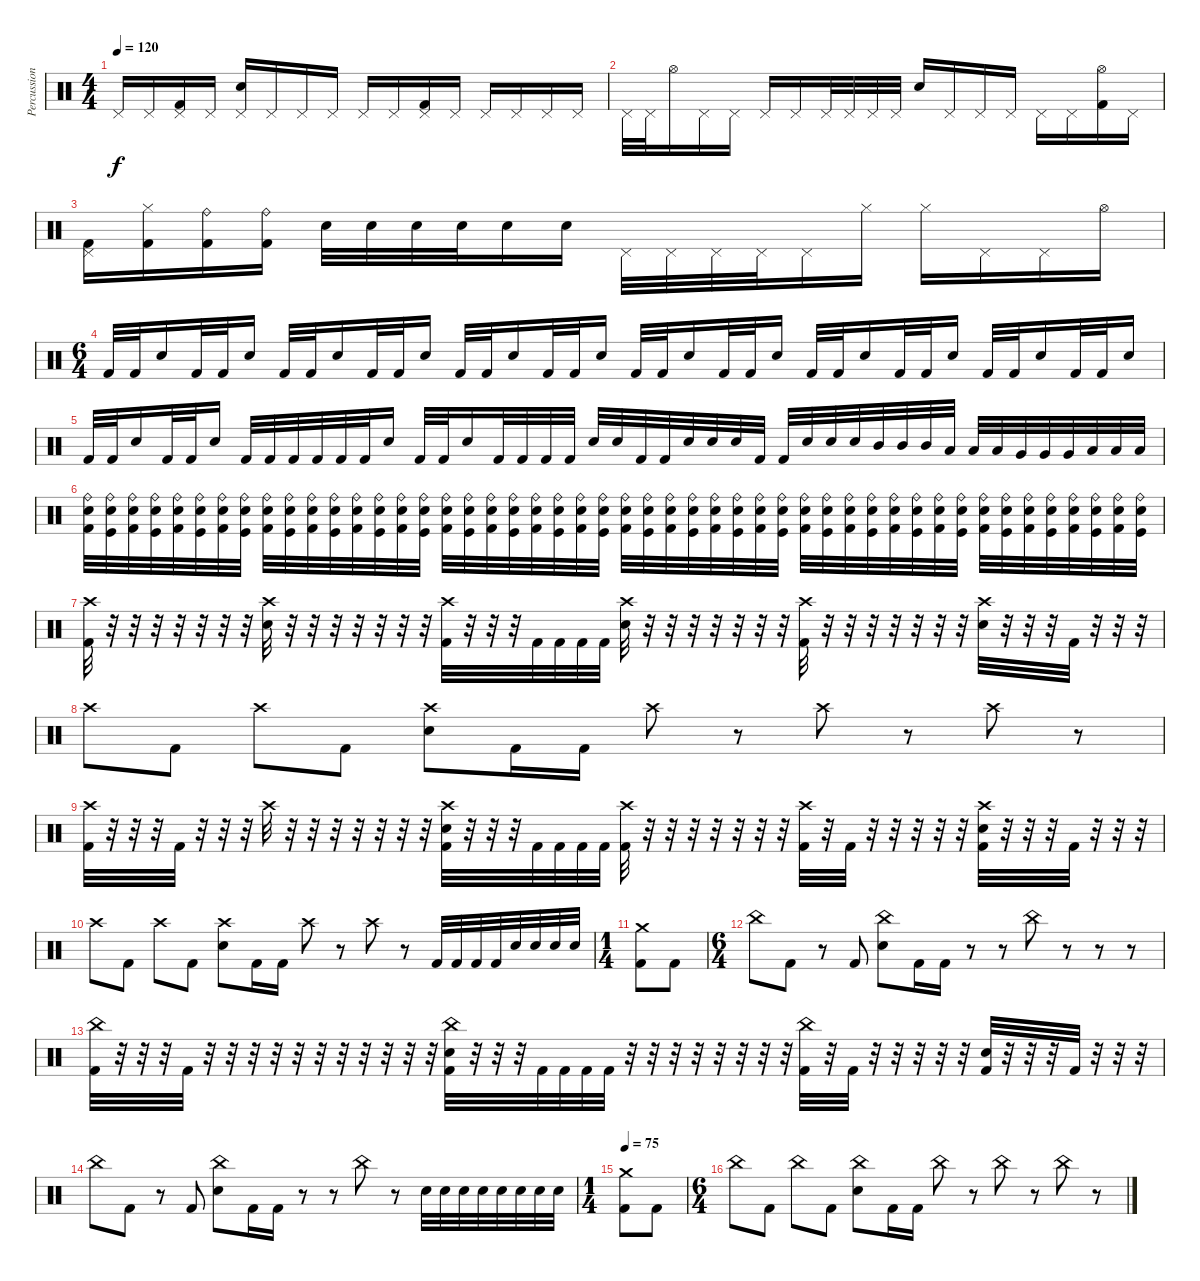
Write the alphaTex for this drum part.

\track ("Percussion" "Percussion") {instrument percussion}
\staff {score}
\articulation defaults
\ts (4 4)
\tempo 120
\clef neutral
\ks c "Pedal Hi-Hat (hit)".16{dy f} "Pedal Hi-Hat (hit)".16
("Pedal Hi-Hat (hit)" "Kick (hit) 2").16 "Pedal Hi-Hat (hit)".16 ("Pedal Hi-Hat (hit)" "Electric Snare (hit)").16 "Pedal Hi-Hat (hit)".16 "Pedal Hi-Hat (hit)".16 "Pedal Hi-Hat (hit)".16 "Pedal Hi-Hat (hit)".16 "Pedal Hi-Hat (hit)".16 ("Pedal Hi-Hat (hit)" "Kick (hit) 2").16 "Pedal Hi-Hat (hit)".16 "Pedal Hi-Hat (hit)".16 "Pedal Hi-Hat (hit)".16 "Pedal Hi-Hat (hit)".16 "Pedal Hi-Hat (hit)".16 |
"Pedal Hi-Hat (hit)".32 "Pedal Hi-Hat (hit)".32 "Hi-Hat (open)".16{beam merge} "Pedal Hi-Hat (hit)".16 "Pedal Hi-Hat (hit)".16 "Pedal Hi-Hat (hit)".16 "Pedal Hi-Hat (hit)".16 "Pedal Hi-Hat (hit)".32 "Pedal Hi-Hat (hit)".32 "Pedal Hi-Hat (hit)".32 "Pedal Hi-Hat (hit)".32 "Electric Snare (hit)".16 "Pedal Hi-Hat (hit)".16 "Pedal Hi-Hat (hit)".16 "Pedal Hi-Hat (hit)".16 "Pedal Hi-Hat (hit)".16 "Pedal Hi-Hat (hit)".16 ("Hi-Hat (open)" "Kick (hit) 2").16 "Pedal Hi-Hat (hit)".16 |
("Pedal Hi-Hat (hit)" "Kick (hit) 2").16 ("Hi-Hat (closed)" "Kick (hit) 2").16 ("Ride (bell)" "Kick (hit) 2").16 ("Ride (bell)" "Kick (hit) 2").16 "Electric Snare (hit)".32 "Electric Snare (hit)".32 "Electric Snare (hit)".32 "Electric Snare (hit)".32 "Electric Snare (hit)".16 "Electric Snare (hit)".16 "Pedal Hi-Hat (hit)".32 "Pedal Hi-Hat (hit)".32 "Pedal Hi-Hat (hit)".32 "Pedal Hi-Hat (hit)".32 "Pedal Hi-Hat (hit)".16 "Hi-Hat (closed)".16 "Hi-Hat (closed)".16 "Pedal Hi-Hat (hit)".16 "Pedal Hi-Hat (hit)".16 "Hi-Hat (open)".16 |
\ts (6 4)
"Kick (hit) 2".32 "Kick (hit) 2".32 "Electric Snare (hit)".16 "Kick (hit) 2".32 "Kick (hit) 2".32 "Electric Snare (hit)".16 "Kick (hit) 2".32 "Kick (hit) 2".32 "Electric Snare (hit)".16 "Kick (hit) 2".32 "Kick (hit) 2".32 "Electric Snare (hit)".16 "Kick (hit) 2".32 "Kick (hit) 2".32 "Electric Snare (hit)".16 "Kick (hit) 2".32 "Kick (hit) 2".32 "Electric Snare (hit)".16 "Kick (hit) 2".32 "Kick (hit) 2".32 "Electric Snare (hit)".16 "Kick (hit) 2".32 "Kick (hit) 2".32 "Electric Snare (hit)".16 "Kick (hit) 2".32 "Kick (hit) 2".32 "Electric Snare (hit)".16 "Kick (hit) 2".32 "Kick (hit) 2".32 "Electric Snare (hit)".16 "Kick (hit) 2".32 "Kick (hit) 2".32 "Electric Snare (hit)".16 "Kick (hit) 2".32 "Kick (hit) 2".32 "Electric Snare (hit)".16 |
"Kick (hit) 2".32 "Kick (hit) 2".32 "Electric Snare (hit)".16 "Kick (hit) 2".32 "Kick (hit) 2".32 "Electric Snare (hit)".16 "Kick (hit) 2".32 "Kick (hit) 2".32 "Kick (hit) 2".32 "Kick (hit) 2".32 "Kick (hit) 2".32 "Kick (hit) 2".32 "Electric Snare (hit)".16 "Kick (hit) 2".32 "Kick (hit) 2".32 "Electric Snare (hit)".16 "Kick (hit) 2".32 "Kick (hit) 2".32 "Kick (hit) 2".32 "Kick (hit) 2".32 "Electric Snare (hit)".32 "Electric Snare (hit)".32 "Kick (hit) 2".32 "Kick (hit) 2".32 "Electric Snare (hit)".32 "Electric Snare (hit)".32 "Electric Snare (hit)".32 "Kick (hit) 2".32 "Kick (hit) 2".32 "Electric Snare (hit)".32 "Electric Snare (hit)".32 "Electric Snare (hit)".32 "Mid Tom (hit)".32 "Mid Tom (hit)".32 "Mid Tom (hit)".32 "Low Tom (hit)".32 "Low Tom (hit)".32 "Low Tom (hit)".32 "Very Low Tom (hit)".32 "Very Low Tom (hit)".32 "Very Low Tom (hit)".32 "Low Floor Tom (hit)".32 "Low Floor Tom (hit)".32 "Low Floor Tom (hit)".32 |
("Ride (bell)" "Electric Snare (hit)" "Kick (hit) 2").32 ("Ride (bell)" "Electric Snare (hit)" "Kick (hit)").32 ("Ride (bell)" "Electric Snare (hit)" "Kick (hit) 2").32 ("Ride (bell)" "Electric Snare (hit)" "Kick (hit)").32 ("Ride (bell)" "Electric Snare (hit)" "Kick (hit) 2").32 ("Ride (bell)" "Electric Snare (hit)" "Kick (hit)").32 ("Ride (bell)" "Electric Snare (hit)" "Kick (hit) 2").32 ("Ride (bell)" "Electric Snare (hit)" "Kick (hit)").32 ("Ride (bell)" "Electric Snare (hit)" "Kick (hit) 2").32 ("Ride (bell)" "Electric Snare (hit)" "Kick (hit)").32 ("Ride (bell)" "Electric Snare (hit)" "Kick (hit) 2").32 ("Ride (bell)" "Electric Snare (hit)" "Kick (hit)").32 ("Ride (bell)" "Electric Snare (hit)" "Kick (hit) 2").32 ("Ride (bell)" "Electric Snare (hit)" "Kick (hit)").32 ("Ride (bell)" "Electric Snare (hit)" "Kick (hit) 2").32 ("Ride (bell)" "Electric Snare (hit)" "Kick (hit)").32 ("Ride (bell)" "Electric Snare (hit)" "Kick (hit) 2").32 ("Ride (bell)" "Electric Snare (hit)" "Kick (hit)").32 ("Ride (bell)" "Electric Snare (hit)" "Kick (hit) 2").32 ("Ride (bell)" "Electric Snare (hit)" "Kick (hit)").32 ("Ride (bell)" "Electric Snare (hit)" "Kick (hit) 2").32 ("Ride (bell)" "Electric Snare (hit)" "Kick (hit)").32 ("Ride (bell)" "Electric Snare (hit)" "Kick (hit) 2").32 ("Ride (bell)" "Electric Snare (hit)" "Kick (hit)").32 ("Ride (bell)" "Electric Snare (hit)" "Kick (hit) 2").32 ("Ride (bell)" "Electric Snare (hit)" "Kick (hit)").32 ("Ride (bell)" "Electric Snare (hit)" "Kick (hit) 2").32 ("Ride (bell)" "Electric Snare (hit)" "Kick (hit)").32 ("Ride (bell)" "Electric Snare (hit)" "Kick (hit) 2").32 ("Ride (bell)" "Electric Snare (hit)" "Kick (hit)").32 ("Ride (bell)" "Electric Snare (hit)" "Kick (hit) 2").32 ("Ride (bell)" "Electric Snare (hit)" "Kick (hit)").32 ("Ride (bell)" "Electric Snare (hit)" "Kick (hit) 2").32 ("Ride (bell)" "Electric Snare (hit)" "Kick (hit)").32 ("Ride (bell)" "Electric Snare (hit)" "Kick (hit) 2").32 ("Ride (bell)" "Electric Snare (hit)" "Kick (hit)").32 ("Ride (bell)" "Electric Snare (hit)" "Kick (hit) 2").32 ("Ride (bell)" "Electric Snare (hit)" "Kick (hit)").32 ("Ride (bell)" "Electric Snare (hit)" "Kick (hit) 2").32 ("Ride (bell)" "Electric Snare (hit)" "Kick (hit)").32 ("Ride (bell)" "Electric Snare (hit)" "Kick (hit) 2").32 ("Ride (bell)" "Electric Snare (hit)" "Kick (hit)").32 ("Ride (bell)" "Electric Snare (hit)" "Kick (hit) 2").32 ("Ride (bell)" "Electric Snare (hit)" "Kick (hit)").32 ("Ride (bell)" "Electric Snare (hit)" "Kick (hit) 2").32 ("Ride (bell)" "Electric Snare (hit)" "Kick (hit)").32 ("Ride (bell)" "Electric Snare (hit)" "Kick (hit) 2").32 ("Ride (bell)" "Electric Snare (hit)" "Kick (hit)").32 |
("Crash high (hit)" "Kick (hit) 2").32 r.32 r.32 r.32 r.32 r.32 r.32 r.32 ("Crash high (hit)" "Electric Snare (hit)").32 r.32 r.32 r.32 r.32 r.32 r.32 r.32 ("Crash high (hit)" "Kick (hit) 2").32 r.32 r.32 r.32 "Kick (hit) 2".32 "Kick (hit) 2".32 "Kick (hit) 2".32 "Kick (hit) 2".32 ("Crash high (hit)" "Electric Snare (hit)").32 r.32 r.32 r.32 r.32 r.32 r.32 r.32 ("Crash high (hit)" "Kick (hit) 2").32 r.32 r.32 r.32 r.32 r.32 r.32 r.32 ("Crash high (hit)" "Electric Snare (hit)").32 r.32 r.32 r.32 "Kick (hit) 2".32 r.32 r.32 r.32 |
"Crash high (hit)".8 "Kick (hit) 2".8 "Crash high (hit)".8 "Kick (hit) 2".8 ("Crash high (hit)" "Electric Snare (hit)").8 "Kick (hit) 2".16 "Kick (hit) 2".16 "Crash high (hit)".8 r.8 "Crash high (hit)".8 r.8 "Crash high (hit)".8 r.8 |
("Crash high (hit)" "Kick (hit) 2").32 r.32 r.32 r.32 "Kick (hit) 2".32 r.32 r.32 r.32 "Crash high (hit)".32 r.32 r.32 r.32 r.32 r.32 r.32 r.32 ("Crash high (hit)" "Electric Snare (hit)" "Kick (hit) 2").32 r.32 r.32 r.32 "Kick (hit) 2".32 "Kick (hit) 2".32 "Kick (hit) 2".32 "Kick (hit) 2".32 ("Crash high (hit)" "Kick (hit) 2").32 r.32 r.32 r.32 r.32 r.32 r.32 r.32 ("Crash high (hit)" "Kick (hit) 2").32 r.32 "Kick (hit) 2".32 r.32 r.32 r.32 r.32 r.32 ("Crash high (hit)" "Electric Snare (hit)" "Kick (hit) 2").32 r.32 r.32 r.32 "Kick (hit) 2".32 r.32 r.32 r.32 |
"Crash high (hit)".8 "Kick (hit) 2".8 "Crash high (hit)".8 "Kick (hit) 2".8 ("Crash high (hit)" "Electric Snare (hit)").8 "Kick (hit) 2".16 "Kick (hit) 2".16 "Crash high (hit)".8 r.8 "Crash high (hit)".8 r.8 "Kick (hit) 2".32 "Kick (hit) 2".32 "Kick (hit) 2".32 "Kick (hit) 2".32 "Electric Snare (hit)".32 "Electric Snare (hit)".32 "Electric Snare (hit)".32 "Electric Snare (hit)".32 |
\ts (1 4)
("Crash medium (hit)" "Kick (hit) 2").8 "Kick (hit) 2".8 |
\ts (6 4)
"China (hit)".8 "Kick (hit) 2".8 r.8 "Kick (hit) 2".8 ("China (hit)" "Electric Snare (hit)").8 "Kick (hit) 2".16 "Kick (hit) 2".16 r.8 r.8 "China (hit)".8 r.8 r.8 r.8 |
("China (hit)" "Kick (hit) 2").32 r.32 r.32 r.32 "Kick (hit) 2".32 r.32 r.32 r.32 r.32 r.32 r.32 r.32 r.32 r.32 r.32 r.32 ("China (hit)" "Electric Snare (hit)" "Kick (hit) 2").32 r.32 r.32 r.32 "Kick (hit) 2".32 "Kick (hit) 2".32 "Kick (hit) 2".32 "Kick (hit) 2".32 r.32 r.32 r.32 r.32 r.32 r.32 r.32 r.32 ("China (hit)" "Kick (hit) 2").32 r.32 "Kick (hit) 2".32 r.32 r.32 r.32 r.32 r.32 ("Electric Snare (hit)" "Kick (hit) 2").32 r.32 r.32 r.32 "Kick (hit) 2".32 r.32 r.32 r.32 |
"China (hit)".8 "Kick (hit) 2".8 r.8 "Kick (hit) 2".8 ("China (hit)" "Electric Snare (hit)").8 "Kick (hit) 2".16 "Kick (hit) 2".16 r.8 r.8 "China (hit)".8 r.8 "Electric Snare (hit)".32 "Electric Snare (hit)".32 "Electric Snare (hit)".32 "Electric Snare (hit)".32 "Electric Snare (hit)".32 "Electric Snare (hit)".32 "Electric Snare (hit)".32 "Electric Snare (hit)".32 |
\ts (1 4)
\tempo 75
("Crash medium (hit)" "Kick (hit) 2").8 "Kick (hit) 2".8 |
\ts (6 4)
"China (hit)".8 "Kick (hit) 2".8 "China (hit)".8 "Kick (hit) 2".8 ("China (hit)" "Snare (hit) 2").8 "Kick (hit) 2".16 "Kick (hit) 2".16 "China (hit)".8 r.8 "China (hit)".8 r.8 "China (hit)".8 r.8
